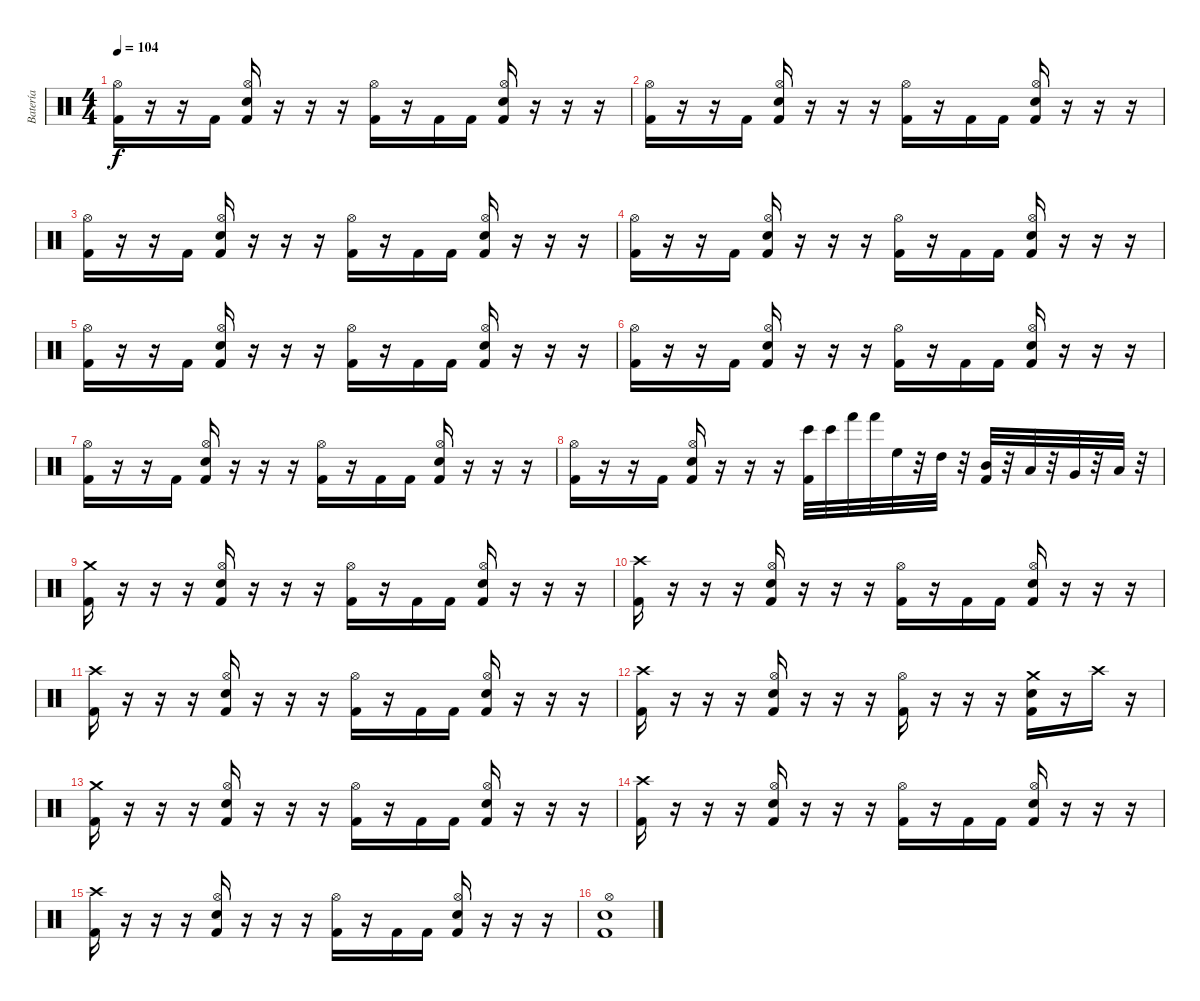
\track ("Batería" "Batería") {instrument percussion}
\staff {score}
\articulation defaults
\ts (4 4)
\tempo 104
\clef neutral
\ks c
("Kick (hit) 2" "Hi-Hat (open)").16{dy f} r.16 r.16 "Kick (hit) 2".16 ("Kick (hit) 2" "Snare (hit) 2" "Hi-Hat (open)").16 r.16 r.16 r.16 ("Kick (hit) 2" "Hi-Hat (open)").16 r.16 "Kick (hit) 2".16 "Kick (hit) 2".16 ("Kick (hit) 2" "Snare (hit) 2" "Hi-Hat (open)").16 r.16 r.16 r.16 |
("Kick (hit) 2" "Hi-Hat (open)").16 r.16 r.16 "Kick (hit) 2".16 ("Kick (hit) 2" "Snare (hit) 2" "Hi-Hat (open)").16 r.16 r.16 r.16 ("Kick (hit) 2" "Hi-Hat (open)").16 r.16 "Kick (hit) 2".16 "Kick (hit) 2".16 ("Kick (hit) 2" "Snare (hit) 2" "Hi-Hat (open)").16 r.16 r.16 r.16 |
("Kick (hit) 2" "Hi-Hat (open)").16 r.16 r.16 "Kick (hit) 2".16 ("Kick (hit) 2" "Snare (hit) 2" "Hi-Hat (open)").16 r.16 r.16 r.16 ("Kick (hit) 2" "Hi-Hat (open)").16 r.16 "Kick (hit) 2".16 "Kick (hit) 2".16 ("Kick (hit) 2" "Snare (hit) 2" "Hi-Hat (open)").16 r.16 r.16 r.16 |
("Kick (hit) 2" "Hi-Hat (open)").16 r.16 r.16 "Kick (hit) 2".16 ("Kick (hit) 2" "Snare (hit) 2" "Hi-Hat (open)").16 r.16 r.16 r.16 ("Kick (hit) 2" "Hi-Hat (open)").16 r.16 "Kick (hit) 2".16 "Kick (hit) 2".16 ("Kick (hit) 2" "Snare (hit) 2" "Hi-Hat (open)").16 r.16 r.16 r.16 |
("Kick (hit) 2" "Hi-Hat (open)").16 r.16 r.16 "Kick (hit) 2".16 ("Kick (hit) 2" "Snare (hit) 2" "Hi-Hat (open)").16 r.16 r.16 r.16 ("Kick (hit) 2" "Hi-Hat (open)").16 r.16 "Kick (hit) 2".16 "Kick (hit) 2".16 ("Kick (hit) 2" "Snare (hit) 2" "Hi-Hat (open)").16 r.16 r.16 r.16 |
("Kick (hit) 2" "Hi-Hat (open)").16 r.16 r.16 "Kick (hit) 2".16 ("Kick (hit) 2" "Snare (hit) 2" "Hi-Hat (open)").16 r.16 r.16 r.16 ("Kick (hit) 2" "Hi-Hat (open)").16 r.16 "Kick (hit) 2".16 "Kick (hit) 2".16 ("Kick (hit) 2" "Snare (hit) 2" "Hi-Hat (open)").16 r.16 r.16 r.16 |
("Kick (hit) 2" "Hi-Hat (open)").16 r.16 r.16 "Kick (hit) 2".16 ("Kick (hit) 2" "Snare (hit) 2" "Hi-Hat (open)").16 r.16 r.16 r.16 ("Kick (hit) 2" "Hi-Hat (open)").16 r.16 "Kick (hit) 2".16 "Kick (hit) 2".16 ("Kick (hit) 2" "Snare (hit) 2" "Hi-Hat (open)").16 r.16 r.16 r.16 |
("Kick (hit) 2" "Hi-Hat (open)").16 r.16 r.16 "Kick (hit) 2".16 ("Kick (hit) 2" "Snare (hit) 2" "Hi-Hat (open)").16 r.16 r.16 r.16 ("Kick (hit) 2" "Bongo High (hit)").32 "Bongo High (hit)".32 "Hand (hit)".32 "Hand (hit)".32 "High Floor Tom (hit)".32 r.32 "High Tom (hit)".32 r.32 ("Kick (hit) 2" "Mid Tom (hit)").32 r.32 "Low Tom (hit)".32 r.32 "Very Low Tom (hit)".32 r.32 "Low Floor Tom (hit)".32 r.32 |
("Kick (hit) 2" "Crash medium (hit)").16 r.16 r.16 r.16 ("Kick (hit) 2" "Snare (hit) 2" "Hi-Hat (open)").16 r.16 r.16 r.16 ("Kick (hit) 2" "Hi-Hat (open)").16 r.16 "Kick (hit) 2".16 "Kick (hit) 2".16 ("Kick (hit) 2" "Snare (hit) 2" "Hi-Hat (open)").16 r.16 r.16 r.16 |
("Kick (hit) 2" "Crash high (hit)").16 r.16 r.16 r.16 ("Kick (hit) 2" "Snare (hit) 2" "Hi-Hat (open)").16 r.16 r.16 r.16 ("Kick (hit) 2" "Hi-Hat (open)").16 r.16 "Kick (hit) 2".16 "Kick (hit) 2".16 ("Kick (hit) 2" "Snare (hit) 2" "Hi-Hat (open)").16 r.16 r.16 r.16 |
("Kick (hit) 2" "Crash high (hit)").16 r.16 r.16 r.16 ("Kick (hit) 2" "Snare (hit) 2" "Hi-Hat (open)").16 r.16 r.16 r.16 ("Kick (hit) 2" "Hi-Hat (open)").16 r.16 "Kick (hit) 2".16 "Kick (hit) 2".16 ("Kick (hit) 2" "Snare (hit) 2" "Hi-Hat (open)").16 r.16 r.16 r.16 |
("Kick (hit) 2" "Crash high (hit)").16 r.16 r.16 r.16 ("Kick (hit) 2" "Snare (hit) 2" "Hi-Hat (open)").16 r.16 r.16 r.16 ("Kick (hit) 2" "Hi-Hat (open)").16 r.16 r.16 r.16 ("Kick (hit) 2" "Snare (hit) 2" "Crash medium (hit)").16 r.16 "Crash high (hit)".16 r.16 |
("Kick (hit) 2" "Crash medium (hit)").16 r.16 r.16 r.16 ("Kick (hit) 2" "Snare (hit) 2" "Hi-Hat (open)").16 r.16 r.16 r.16 ("Kick (hit) 2" "Hi-Hat (open)").16 r.16 "Kick (hit) 2".16 "Kick (hit) 2".16 ("Kick (hit) 2" "Snare (hit) 2" "Hi-Hat (open)").16 r.16 r.16 r.16 |
("Kick (hit) 2" "Crash high (hit)").16 r.16 r.16 r.16 ("Kick (hit) 2" "Snare (hit) 2" "Hi-Hat (open)").16 r.16 r.16 r.16 ("Kick (hit) 2" "Hi-Hat (open)").16 r.16 "Kick (hit) 2".16 "Kick (hit) 2".16 ("Kick (hit) 2" "Snare (hit) 2" "Hi-Hat (open)").16 r.16 r.16 r.16 |
("Kick (hit) 2" "Crash high (hit)").16 r.16 r.16 r.16 ("Kick (hit) 2" "Snare (hit) 2" "Hi-Hat (open)").16 r.16 r.16 r.16 ("Kick (hit) 2" "Hi-Hat (open)").16 r.16 "Kick (hit) 2".16 "Kick (hit) 2".16 ("Kick (hit) 2" "Snare (hit) 2" "Hi-Hat (open)").16 r.16 r.16 r.16 |
("Kick (hit) 2" "Snare (hit) 2" "Hi-Hat (open)").1
